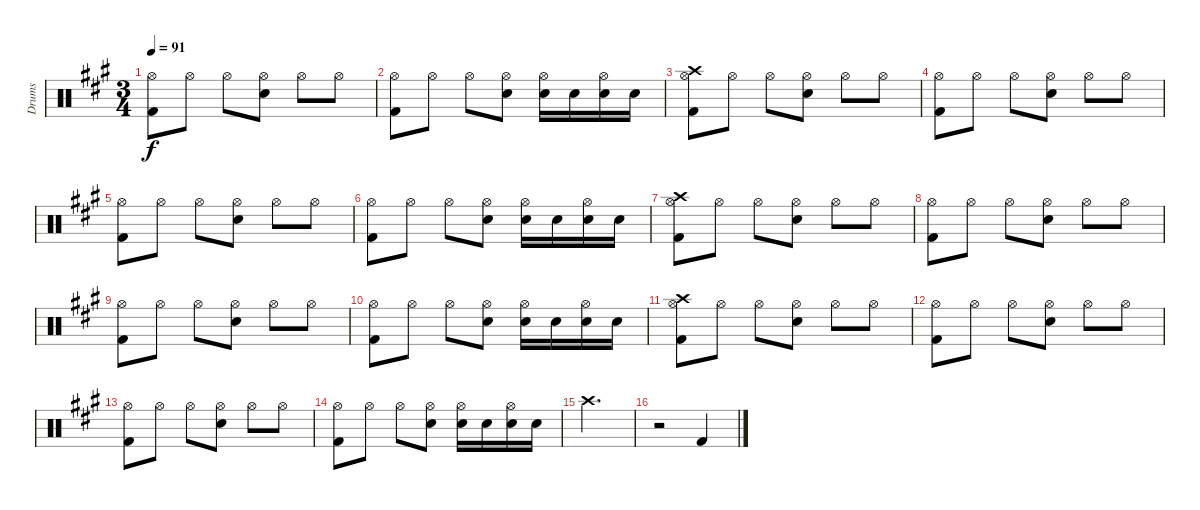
\track ("Drums" "Drums") {instrument percussion}
\staff {score}
\articulation defaults
\ts (3 4)
\tempo 91
\clef neutral
\ks a
("Hi-Hat (open)" "Kick (hit) 2").8{dy f} "Hi-Hat (open)".8 "Hi-Hat (open)".8 ("Hi-Hat (open)" "Snare (hit) 2").8 "Hi-Hat (open)".8 "Hi-Hat (open)".8 |
("Hi-Hat (open)" "Kick (hit) 2").8 "Hi-Hat (open)".8 "Hi-Hat (open)".8 ("Hi-Hat (open)" "Snare (hit) 2").8 ("Hi-Hat (open)" "Snare (hit) 2").16 "Snare (hit) 2".16 ("Hi-Hat (open)" "Snare (hit) 2").16 "Snare (hit) 2".16 |
("Hi-Hat (open)" "Kick (hit) 2" "Crash high (hit)").8 "Hi-Hat (open)".8 "Hi-Hat (open)".8 ("Hi-Hat (open)" "Snare (hit) 2").8 "Hi-Hat (open)".8 "Hi-Hat (open)".8 |
("Hi-Hat (open)" "Kick (hit) 2").8 "Hi-Hat (open)".8 "Hi-Hat (open)".8 ("Hi-Hat (open)" "Snare (hit) 2").8 "Hi-Hat (open)".8 "Hi-Hat (open)".8 |
("Hi-Hat (open)" "Kick (hit) 2").8 "Hi-Hat (open)".8 "Hi-Hat (open)".8 ("Hi-Hat (open)" "Snare (hit) 2").8 "Hi-Hat (open)".8 "Hi-Hat (open)".8 |
("Hi-Hat (open)" "Kick (hit) 2").8 "Hi-Hat (open)".8 "Hi-Hat (open)".8 ("Hi-Hat (open)" "Snare (hit) 2").8 ("Hi-Hat (open)" "Snare (hit) 2").16 "Snare (hit) 2".16 ("Hi-Hat (open)" "Snare (hit) 2").16 "Snare (hit) 2".16 |
("Hi-Hat (open)" "Kick (hit) 2" "Crash high (hit)").8 "Hi-Hat (open)".8 "Hi-Hat (open)".8 ("Hi-Hat (open)" "Snare (hit) 2").8 "Hi-Hat (open)".8 "Hi-Hat (open)".8 |
("Hi-Hat (open)" "Kick (hit) 2").8 "Hi-Hat (open)".8 "Hi-Hat (open)".8 ("Hi-Hat (open)" "Snare (hit) 2").8 "Hi-Hat (open)".8 "Hi-Hat (open)".8 |
("Hi-Hat (open)" "Kick (hit) 2").8 "Hi-Hat (open)".8 "Hi-Hat (open)".8 ("Hi-Hat (open)" "Snare (hit) 2").8 "Hi-Hat (open)".8 "Hi-Hat (open)".8 |
("Hi-Hat (open)" "Kick (hit) 2").8 "Hi-Hat (open)".8 "Hi-Hat (open)".8 ("Hi-Hat (open)" "Snare (hit) 2").8 ("Hi-Hat (open)" "Snare (hit) 2").16 "Snare (hit) 2".16 ("Hi-Hat (open)" "Snare (hit) 2").16 "Snare (hit) 2".16 |
("Hi-Hat (open)" "Kick (hit) 2" "Crash high (hit)").8 "Hi-Hat (open)".8 "Hi-Hat (open)".8 ("Hi-Hat (open)" "Snare (hit) 2").8 "Hi-Hat (open)".8 "Hi-Hat (open)".8 |
("Hi-Hat (open)" "Kick (hit) 2").8 "Hi-Hat (open)".8 "Hi-Hat (open)".8 ("Hi-Hat (open)" "Snare (hit) 2").8 "Hi-Hat (open)".8 "Hi-Hat (open)".8 |
("Hi-Hat (open)" "Kick (hit) 2").8 "Hi-Hat (open)".8 "Hi-Hat (open)".8 ("Hi-Hat (open)" "Snare (hit) 2").8 "Hi-Hat (open)".8 "Hi-Hat (open)".8 |
("Hi-Hat (open)" "Kick (hit) 2").8 "Hi-Hat (open)".8 "Hi-Hat (open)".8 ("Hi-Hat (open)" "Snare (hit) 2").8 ("Hi-Hat (open)" "Snare (hit) 2").16 "Snare (hit) 2".16 ("Hi-Hat (open)" "Snare (hit) 2").16 "Snare (hit) 2".16 |
"Crash high (hit)".2{d} |
r.2 "Kick (hit) 2".4
